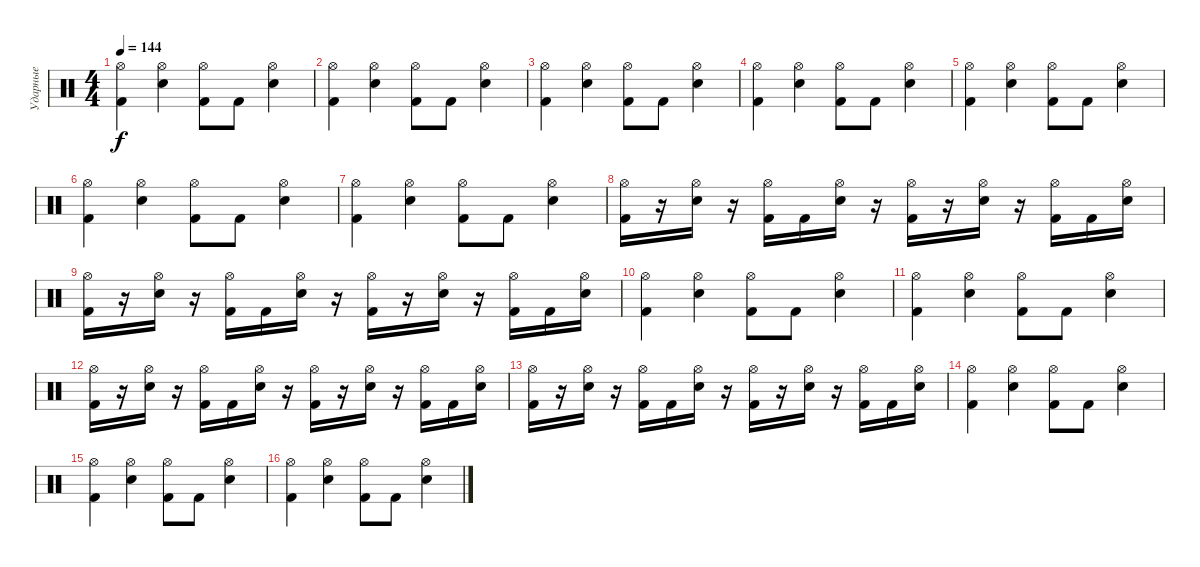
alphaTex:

\track ("Ударные" "Ударные") {instrument percussion}
\staff {score}
\articulation defaults
\ts (4 4)
\tempo 144
\clef neutral
\ks c
("Hi-Hat (open)" "Kick (hit) 2").4{dy f} ("Hi-Hat (open)" "Snare (hit) 2").4 ("Hi-Hat (open)" "Kick (hit) 2").8 "Kick (hit) 2".8 ("Hi-Hat (open)" "Snare (hit) 2").4 |
("Hi-Hat (open)" "Kick (hit) 2").4 ("Hi-Hat (open)" "Snare (hit) 2").4 ("Hi-Hat (open)" "Kick (hit) 2").8 "Kick (hit) 2".8 ("Hi-Hat (open)" "Snare (hit) 2").4 |
("Hi-Hat (open)" "Kick (hit) 2").4 ("Hi-Hat (open)" "Snare (hit) 2").4 ("Hi-Hat (open)" "Kick (hit) 2").8 "Kick (hit) 2".8 ("Hi-Hat (open)" "Snare (hit) 2").4 |
("Hi-Hat (open)" "Kick (hit) 2").4 ("Hi-Hat (open)" "Snare (hit) 2").4 ("Hi-Hat (open)" "Kick (hit) 2").8 "Kick (hit) 2".8 ("Hi-Hat (open)" "Snare (hit) 2").4 |
("Hi-Hat (open)" "Kick (hit) 2").4 ("Hi-Hat (open)" "Snare (hit) 2").4 ("Hi-Hat (open)" "Kick (hit) 2").8 "Kick (hit) 2".8 ("Hi-Hat (open)" "Snare (hit) 2").4 |
("Hi-Hat (open)" "Kick (hit) 2").4 ("Hi-Hat (open)" "Snare (hit) 2").4 ("Hi-Hat (open)" "Kick (hit) 2").8 "Kick (hit) 2".8 ("Hi-Hat (open)" "Snare (hit) 2").4 |
("Hi-Hat (open)" "Kick (hit) 2").4 ("Hi-Hat (open)" "Snare (hit) 2").4 ("Hi-Hat (open)" "Kick (hit) 2").8 "Kick (hit) 2".8 ("Hi-Hat (open)" "Snare (hit) 2").4 |
("Hi-Hat (open)" "Kick (hit) 2").16 r.16 ("Hi-Hat (open)" "Electric Snare (hit)").16 r.16 ("Hi-Hat (open)" "Kick (hit) 2").16 "Kick (hit) 2".16 ("Hi-Hat (open)" "Electric Snare (hit)").16 r.16 ("Hi-Hat (open)" "Kick (hit) 2").16 r.16 ("Hi-Hat (open)" "Electric Snare (hit)").16 r.16 ("Hi-Hat (open)" "Kick (hit) 2").16 "Kick (hit) 2".16 ("Hi-Hat (open)" "Electric Snare (hit)").16 |
("Hi-Hat (open)" "Kick (hit) 2").16 r.16 ("Hi-Hat (open)" "Electric Snare (hit)").16 r.16 ("Hi-Hat (open)" "Kick (hit) 2").16 "Kick (hit) 2".16 ("Hi-Hat (open)" "Electric Snare (hit)").16 r.16 ("Hi-Hat (open)" "Kick (hit) 2").16 r.16 ("Hi-Hat (open)" "Electric Snare (hit)").16 r.16 ("Hi-Hat (open)" "Kick (hit) 2").16 "Kick (hit) 2".16 ("Hi-Hat (open)" "Electric Snare (hit)").16 |
("Hi-Hat (open)" "Kick (hit) 2").4 ("Hi-Hat (open)" "Snare (hit) 2").4 ("Hi-Hat (open)" "Kick (hit) 2").8 "Kick (hit) 2".8 ("Hi-Hat (open)" "Snare (hit) 2").4 |
("Hi-Hat (open)" "Kick (hit) 2").4 ("Hi-Hat (open)" "Snare (hit) 2").4 ("Hi-Hat (open)" "Kick (hit) 2").8 "Kick (hit) 2".8 ("Hi-Hat (open)" "Snare (hit) 2").4 |
("Hi-Hat (open)" "Kick (hit) 2").16 r.16 ("Hi-Hat (open)" "Electric Snare (hit)").16 r.16 ("Hi-Hat (open)" "Kick (hit) 2").16 "Kick (hit) 2".16 ("Hi-Hat (open)" "Electric Snare (hit)").16 r.16 ("Hi-Hat (open)" "Kick (hit) 2").16 r.16 ("Hi-Hat (open)" "Electric Snare (hit)").16 r.16 ("Hi-Hat (open)" "Kick (hit) 2").16 "Kick (hit) 2".16 ("Hi-Hat (open)" "Electric Snare (hit)").16 |
("Hi-Hat (open)" "Kick (hit) 2").16 r.16 ("Hi-Hat (open)" "Electric Snare (hit)").16 r.16 ("Hi-Hat (open)" "Kick (hit) 2").16 "Kick (hit) 2".16 ("Hi-Hat (open)" "Electric Snare (hit)").16 r.16 ("Hi-Hat (open)" "Kick (hit) 2").16 r.16 ("Hi-Hat (open)" "Electric Snare (hit)").16 r.16 ("Hi-Hat (open)" "Kick (hit) 2").16 "Kick (hit) 2".16 ("Hi-Hat (open)" "Electric Snare (hit)").16 |
("Hi-Hat (open)" "Kick (hit) 2").4 ("Hi-Hat (open)" "Snare (hit) 2").4 ("Hi-Hat (open)" "Kick (hit) 2").8 "Kick (hit) 2".8 ("Hi-Hat (open)" "Snare (hit) 2").4 |
("Hi-Hat (open)" "Kick (hit) 2").4 ("Hi-Hat (open)" "Snare (hit) 2").4 ("Hi-Hat (open)" "Kick (hit) 2").8 "Kick (hit) 2".8 ("Hi-Hat (open)" "Snare (hit) 2").4 |
("Hi-Hat (open)" "Kick (hit) 2").4 ("Hi-Hat (open)" "Snare (hit) 2").4 ("Hi-Hat (open)" "Kick (hit) 2").8 "Kick (hit) 2".8 ("Hi-Hat (open)" "Snare (hit) 2").4
